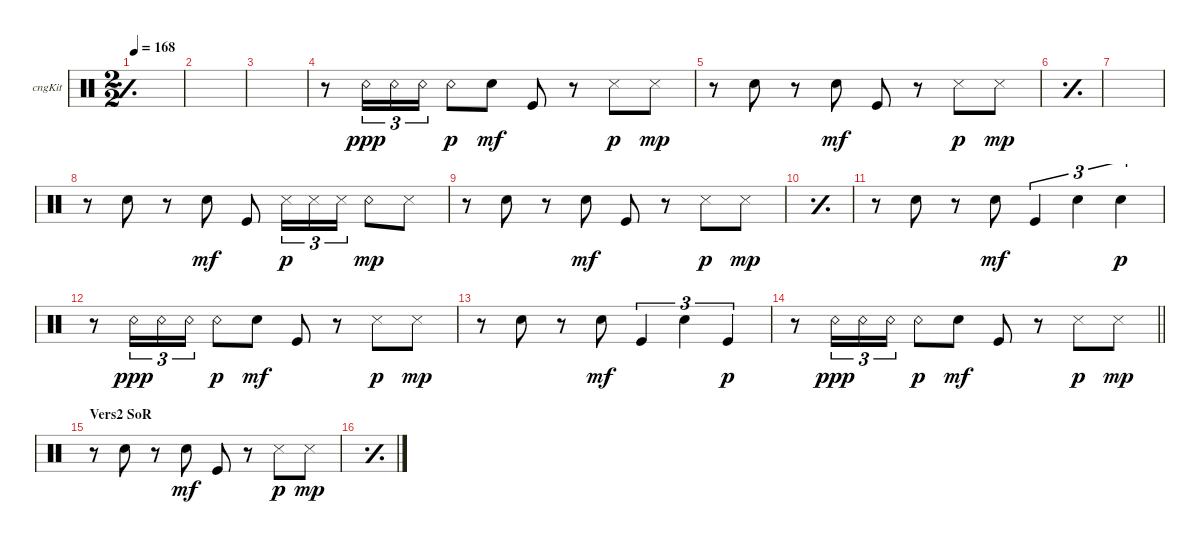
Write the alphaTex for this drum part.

\bracketExtendMode groupsimilarinstruments
\multiTrackTrackNamePolicy hidden
\firstSystemTrackNameOrientation horizontal
\otherSystemsTrackNameOrientation horizontal
\track ("Congas" "cngKit") {instrument percussion}
\staff {score}
\articulation defaults
\ts (2 2)
\tempo 168
\clef neutral
\simile simple
\ks c
|
|
|
r.8 "Snare (rim shot)".16{tu (3 2) dy ppp} "Snare (rim shot)".16{tu (3 2)} "Snare (rim shot)".16{tu (3 2)} "Snare (rim shot)".8{dy p} "Snare (hit) 2".8{dy mf} "Kick (hit)".8 r.8 "Snare (side stick) 3".8{dy p} "Snare (side stick) 3".8{dy mp} |
r.8 "Snare (hit) 2".8 r.8 "Snare (hit) 2".8{dy mf} "Kick (hit)".8 r.8 "Snare (side stick) 3".8{dy p} "Snare (side stick) 3".8{dy mp} |
\simile simple
|
|
\simile none
r.8 "Snare (hit) 2".8 r.8 "Snare (hit) 2".8{dy mf} "Kick (hit)".8 "Snare (side stick) 3".16{tu (3 2) dy p} "Snare (side stick) 3".16{tu (3 2)} "Snare (side stick) 3".16{tu (3 2)} "Snare (rim shot)".8{dy mp} "Snare (side stick) 3".8 |
r.8 "Snare (hit) 2".8 r.8 "Snare (hit) 2".8{dy mf} "Kick (hit)".8 r.8 "Snare (side stick) 3".8{dy p} "Snare (side stick) 3".8{dy mp} |
\simile simple
|
\simile none
r.8 "Snare (hit) 2".8 r.8 "Snare (hit) 2".8{dy mf} "Kick (hit)".4{tu (3 2)} "Snare (hit) 2".4{tu (3 2)} "Snare (hit) 2".4{tu (3 2) dy p} |
r.8 "Snare (rim shot)".16{tu (3 2) dy ppp} "Snare (rim shot)".16{tu (3 2)} "Snare (rim shot)".16{tu (3 2)} "Snare (rim shot)".8{dy p} "Snare (hit) 2".8{dy mf} "Kick (hit)".8 r.8 "Snare (side stick) 3".8{dy p} "Snare (side stick) 3".8{dy mp} |
r.8 "Snare (hit) 2".8 r.8 "Snare (hit) 2".8{dy mf} "Kick (hit)".4{tu (3 2)} "Snare (hit) 2".4{tu (3 2)} "Kick (hit)".4{tu (3 2) dy p} |
\barLineRight lightlight
r.8 "Snare (rim shot)".16{tu (3 2) dy ppp} "Snare (rim shot)".16{tu (3 2)} "Snare (rim shot)".16{tu (3 2)} "Snare (rim shot)".8{dy p} "Snare (hit) 2".8{dy mf} "Kick (hit)".8 r.8 "Snare (side stick) 3".8{dy p} "Snare (side stick) 3".8{dy mp} |
\section ("" "Vers2 SoR")
r.8 "Snare (hit) 2".8 r.8 "Snare (hit) 2".8{dy mf} "Kick (hit)".8 r.8 "Snare (side stick) 3".8{dy p} "Snare (side stick) 3".8{dy mp} |
\simile simple
